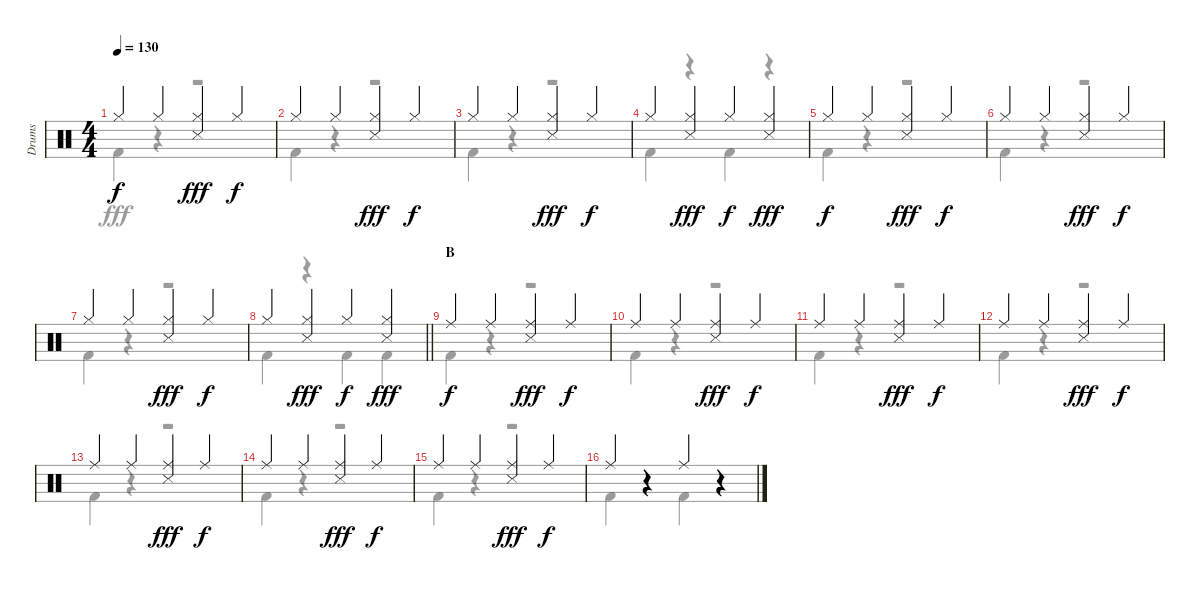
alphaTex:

\track ("Drums" "Drums") {instrument percussion}
\staff {score}
\articulation defaults
\voice
\ts (4 4)
\tempo 130
\clef neutral
\ks c "Hi-Hat (closed)".4{dy f} "Hi-Hat (closed)".4
("Hi-Hat (closed)" "Snare (side stick) 3").4{dy fff} "Hi-Hat (closed)".4{dy f} |
"Hi-Hat (closed)".4 "Hi-Hat (closed)".4 ("Hi-Hat (closed)" "Snare (side stick) 3").4{dy fff} "Hi-Hat (closed)".4{dy f} |
"Hi-Hat (closed)".4 "Hi-Hat (closed)".4 ("Hi-Hat (closed)" "Snare (side stick) 3").4{dy fff} "Hi-Hat (closed)".4{dy f} |
"Hi-Hat (closed)".4 ("Hi-Hat (closed)" "Snare (side stick) 3").4{dy fff} "Hi-Hat (closed)".4{dy f} ("Hi-Hat (closed)" "Snare (side stick) 3").4{dy fff} |
"Hi-Hat (closed)".4{dy f} "Hi-Hat (closed)".4 ("Hi-Hat (closed)" "Snare (side stick) 3").4{dy fff} "Hi-Hat (closed)".4{dy f} |
"Hi-Hat (closed)".4 "Hi-Hat (closed)".4 ("Hi-Hat (closed)" "Snare (side stick) 3").4{dy fff} "Hi-Hat (closed)".4{dy f} |
"Hi-Hat (closed)".4 "Hi-Hat (closed)".4 ("Hi-Hat (closed)" "Snare (side stick) 3").4{dy fff} "Hi-Hat (closed)".4{dy f} |
\barLineRight lightlight "Hi-Hat (closed)".4
("Hi-Hat (closed)" "Snare (side stick) 3").4{dy fff} "Hi-Hat (closed)".4{dy f} ("Hi-Hat (closed)" "Snare (side stick) 3").4{dy fff} |
\section ("" "B")
"Ride (middle)".4{dy f} "Ride (middle)".4 ("Ride (middle)" "Snare (side stick) 3").4{dy fff} "Ride (middle)".4{dy f} |
"Ride (middle)".4 "Ride (middle)".4 ("Ride (middle)" "Snare (side stick) 3").4{dy fff} "Ride (middle)".4{dy f} |
"Ride (middle)".4 "Ride (middle)".4 ("Ride (middle)" "Snare (side stick) 3").4{dy fff} "Ride (middle)".4{dy f} |
"Ride (middle)".4 "Ride (middle)".4 ("Ride (middle)" "Snare (side stick) 3").4{dy fff} "Ride (middle)".4{dy f} |
"Ride (middle)".4 "Ride (middle)".4 ("Ride (middle)" "Snare (side stick) 3").4{dy fff} "Ride (middle)".4{dy f} |
"Ride (middle)".4 "Ride (middle)".4 ("Ride (middle)" "Snare (side stick) 3").4{dy fff} "Ride (middle)".4{dy f} |
"Ride (middle)".4 "Ride (middle)".4 ("Ride (middle)" "Snare (side stick) 3").4{dy fff} "Ride (middle)".4{dy f} |
"Ride (middle)".4 r.4 "Ride (middle)".4 r.4
\voice
\clef neutral
\ottava regular
\simile none
\ks c "Kick (hit) 2".4{dy fff}
r.4 r.2 |
"Kick (hit) 2".4 r.4 r.2 |
"Kick (hit) 2".4 r.4 r.2 |
"Kick (hit) 2".4 r.4 "Kick (hit) 2".4 r.4 |
"Kick (hit) 2".4 r.4 r.2 |
"Kick (hit) 2".4 r.4 r.2 |
"Kick (hit) 2".4 r.4 r.2 |
\barLineRight lightlight "Kick (hit) 2".4
r.4 "Kick (hit) 2".4 "Kick (hit) 2".4 |
"Kick (hit) 2".4 r.4 r.2 |
"Kick (hit) 2".4 r.4 r.2 |
"Kick (hit) 2".4 r.4 r.2 |
"Kick (hit) 2".4 r.4 r.2 |
"Kick (hit) 2".4 r.4 r.2 |
"Kick (hit) 2".4 r.4 r.2 |
"Kick (hit) 2".4 r.4 r.2 |
"Kick (hit) 2".4 r.4 "Kick (hit) 2".4 r.4
